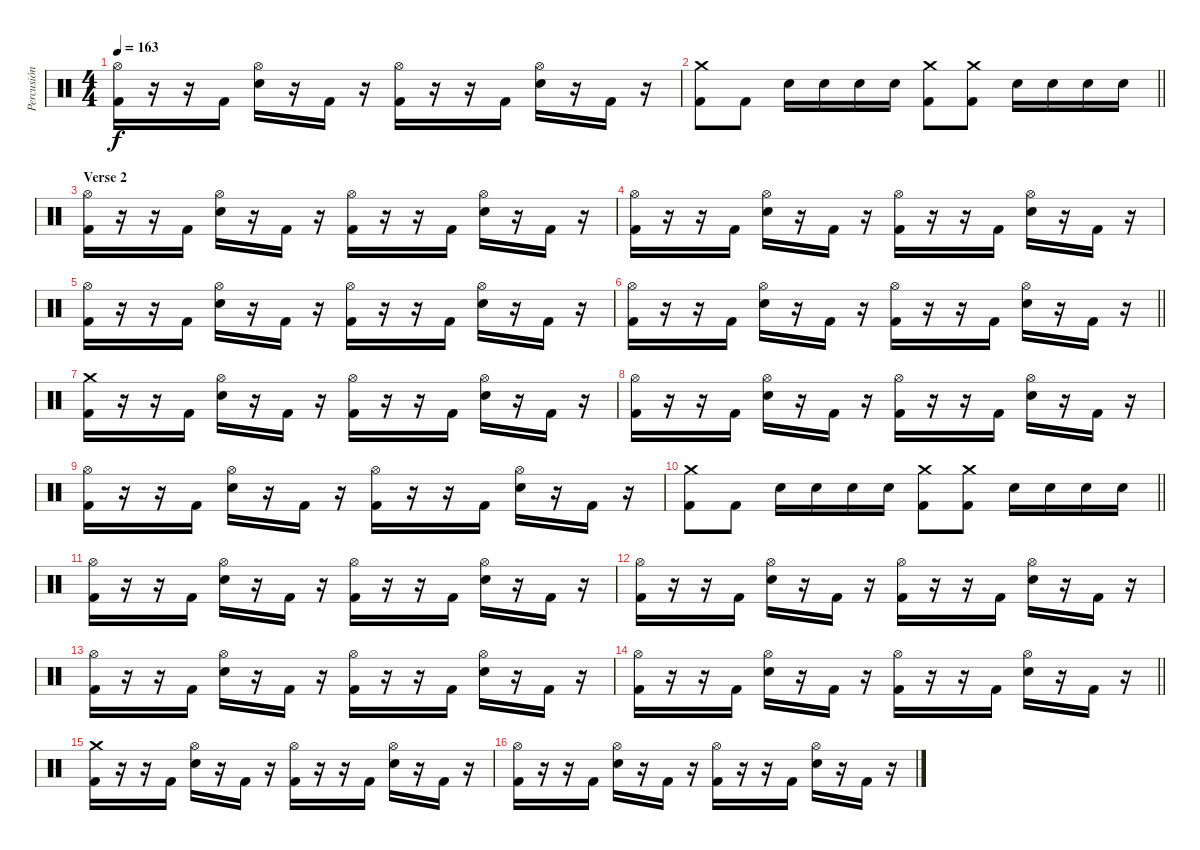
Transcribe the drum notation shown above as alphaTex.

\track ("Percusión" "Percusión") {instrument percussion}
\staff {score}
\articulation defaults
\ts (4 4)
\tempo 163
\clef neutral
\ks c
("Hi-Hat (open)" "Kick (hit) 2").16{dy f} r.16 r.16 "Kick (hit) 2".16 ("Hi-Hat (open)" "Snare (hit) 2").16 r.16 "Kick (hit) 2".16 r.16 ("Hi-Hat (open)" "Kick (hit) 2").16 r.16 r.16 "Kick (hit) 2".16 ("Hi-Hat (open)" "Snare (hit) 2").16 r.16 "Kick (hit) 2".16 r.16 |
\barLineRight lightlight
("Crash medium (hit)" "Kick (hit) 2").8 "Kick (hit) 2".8 "Snare (hit) 2".16 "Snare (hit) 2".16 "Snare (hit) 2".16 "Snare (hit) 2".16 ("Crash medium (hit)" "Kick (hit) 2").8 ("Crash medium (hit)" "Kick (hit) 2").8 "Snare (hit) 2".16 "Snare (hit) 2".16 "Snare (hit) 2".16 "Snare (hit) 2".16 |
\section ("" "Verse 2")
("Hi-Hat (open)" "Kick (hit) 2").16 r.16 r.16 "Kick (hit) 2".16 ("Hi-Hat (open)" "Snare (hit) 2").16 r.16 "Kick (hit) 2".16 r.16 ("Hi-Hat (open)" "Kick (hit) 2").16 r.16 r.16 "Kick (hit) 2".16 ("Hi-Hat (open)" "Snare (hit) 2").16 r.16 "Kick (hit) 2".16 r.16 |
("Hi-Hat (open)" "Kick (hit) 2").16 r.16 r.16 "Kick (hit) 2".16 ("Hi-Hat (open)" "Snare (hit) 2").16 r.16 "Kick (hit) 2".16 r.16 ("Hi-Hat (open)" "Kick (hit) 2").16 r.16 r.16 "Kick (hit) 2".16 ("Hi-Hat (open)" "Snare (hit) 2").16 r.16 "Kick (hit) 2".16 r.16 |
("Hi-Hat (open)" "Kick (hit) 2").16 r.16 r.16 "Kick (hit) 2".16 ("Hi-Hat (open)" "Snare (hit) 2").16 r.16 "Kick (hit) 2".16 r.16 ("Hi-Hat (open)" "Kick (hit) 2").16 r.16 r.16 "Kick (hit) 2".16 ("Hi-Hat (open)" "Snare (hit) 2").16 r.16 "Kick (hit) 2".16 r.16 |
\barLineRight lightlight
("Hi-Hat (open)" "Kick (hit) 2").16 r.16 r.16 "Kick (hit) 2".16 ("Hi-Hat (open)" "Snare (hit) 2").16 r.16 "Kick (hit) 2".16 r.16 ("Hi-Hat (open)" "Kick (hit) 2").16 r.16 r.16 "Kick (hit) 2".16 ("Hi-Hat (open)" "Snare (hit) 2").16 r.16 "Kick (hit) 2".16 r.16 |
("Crash medium (hit)" "Kick (hit) 2").16 r.16 r.16 "Kick (hit) 2".16 ("Hi-Hat (open)" "Snare (hit) 2").16 r.16 "Kick (hit) 2".16 r.16 ("Hi-Hat (open)" "Kick (hit) 2").16 r.16 r.16 "Kick (hit) 2".16 ("Hi-Hat (open)" "Snare (hit) 2").16 r.16 "Kick (hit) 2".16 r.16 |
("Hi-Hat (open)" "Kick (hit) 2").16 r.16 r.16 "Kick (hit) 2".16 ("Hi-Hat (open)" "Snare (hit) 2").16 r.16 "Kick (hit) 2".16 r.16 ("Hi-Hat (open)" "Kick (hit) 2").16 r.16 r.16 "Kick (hit) 2".16 ("Hi-Hat (open)" "Snare (hit) 2").16 r.16 "Kick (hit) 2".16 r.16 |
("Hi-Hat (open)" "Kick (hit) 2").16 r.16 r.16 "Kick (hit) 2".16 ("Hi-Hat (open)" "Snare (hit) 2").16 r.16 "Kick (hit) 2".16 r.16 ("Hi-Hat (open)" "Kick (hit) 2").16 r.16 r.16 "Kick (hit) 2".16 ("Hi-Hat (open)" "Snare (hit) 2").16 r.16 "Kick (hit) 2".16 r.16 |
\barLineRight lightlight
("Crash medium (hit)" "Kick (hit) 2").8 "Kick (hit) 2".8 "Snare (hit) 2".16 "Snare (hit) 2".16 "Snare (hit) 2".16 "Snare (hit) 2".16 ("Crash medium (hit)" "Kick (hit) 2").8 ("Crash medium (hit)" "Kick (hit) 2").8 "Snare (hit) 2".16 "Snare (hit) 2".16 "Snare (hit) 2".16 "Snare (hit) 2".16 |
("Hi-Hat (open)" "Kick (hit) 2").16 r.16 r.16 "Kick (hit) 2".16 ("Hi-Hat (open)" "Snare (hit) 2").16 r.16 "Kick (hit) 2".16 r.16 ("Hi-Hat (open)" "Kick (hit) 2").16 r.16 r.16 "Kick (hit) 2".16 ("Hi-Hat (open)" "Snare (hit) 2").16 r.16 "Kick (hit) 2".16 r.16 |
("Hi-Hat (open)" "Kick (hit) 2").16 r.16 r.16 "Kick (hit) 2".16 ("Hi-Hat (open)" "Snare (hit) 2").16 r.16 "Kick (hit) 2".16 r.16 ("Hi-Hat (open)" "Kick (hit) 2").16 r.16 r.16 "Kick (hit) 2".16 ("Hi-Hat (open)" "Snare (hit) 2").16 r.16 "Kick (hit) 2".16 r.16 |
("Hi-Hat (open)" "Kick (hit) 2").16 r.16 r.16 "Kick (hit) 2".16 ("Hi-Hat (open)" "Snare (hit) 2").16 r.16 "Kick (hit) 2".16 r.16 ("Hi-Hat (open)" "Kick (hit) 2").16 r.16 r.16 "Kick (hit) 2".16 ("Hi-Hat (open)" "Snare (hit) 2").16 r.16 "Kick (hit) 2".16 r.16 |
\barLineRight lightlight
("Hi-Hat (open)" "Kick (hit) 2").16 r.16 r.16 "Kick (hit) 2".16 ("Hi-Hat (open)" "Snare (hit) 2").16 r.16 "Kick (hit) 2".16 r.16 ("Hi-Hat (open)" "Kick (hit) 2").16 r.16 r.16 "Kick (hit) 2".16 ("Hi-Hat (open)" "Snare (hit) 2").16 r.16 "Kick (hit) 2".16 r.16 |
("Crash medium (hit)" "Kick (hit) 2").16 r.16 r.16 "Kick (hit) 2".16 ("Hi-Hat (open)" "Snare (hit) 2").16 r.16 "Kick (hit) 2".16 r.16 ("Hi-Hat (open)" "Kick (hit) 2").16 r.16 r.16 "Kick (hit) 2".16 ("Hi-Hat (open)" "Snare (hit) 2").16 r.16 "Kick (hit) 2".16 r.16 |
("Hi-Hat (open)" "Kick (hit) 2").16 r.16 r.16 "Kick (hit) 2".16 ("Hi-Hat (open)" "Snare (hit) 2").16 r.16 "Kick (hit) 2".16 r.16 ("Hi-Hat (open)" "Kick (hit) 2").16 r.16 r.16 "Kick (hit) 2".16 ("Hi-Hat (open)" "Snare (hit) 2").16 r.16 "Kick (hit) 2".16 r.16
